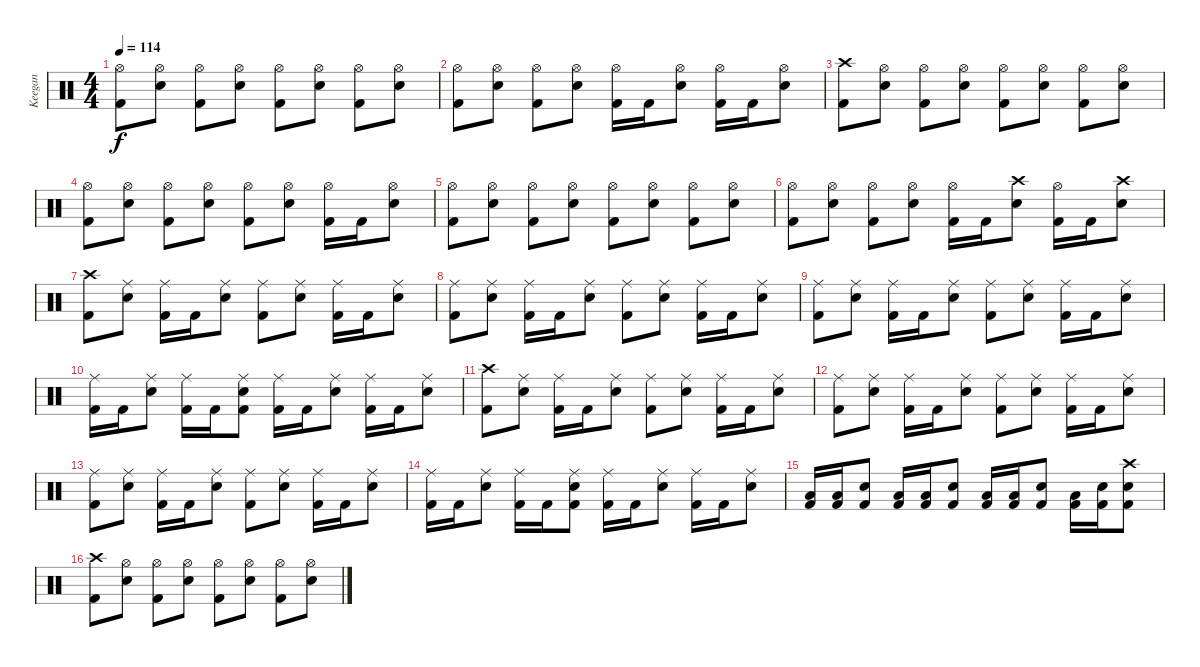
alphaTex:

\track ("Keegan" "Keegan") {instrument percussion}
\staff {score}
\articulation defaults
\ts (4 4)
\tempo 114
\clef neutral
\ks c
("Hi-Hat (open)" "Kick (hit) 2").8{dy f} ("Hi-Hat (open)" "Electric Snare (hit)").8 ("Hi-Hat (open)" "Kick (hit) 2").8 ("Hi-Hat (open)" "Electric Snare (hit)").8 ("Hi-Hat (open)" "Kick (hit) 2").8 ("Hi-Hat (open)" "Electric Snare (hit)").8 ("Hi-Hat (open)" "Kick (hit) 2").8 ("Hi-Hat (open)" "Electric Snare (hit)").8 |
("Hi-Hat (open)" "Kick (hit) 2").8 ("Hi-Hat (open)" "Electric Snare (hit)").8 ("Hi-Hat (open)" "Kick (hit) 2").8 ("Hi-Hat (open)" "Electric Snare (hit)").8 ("Hi-Hat (open)" "Kick (hit) 2").16 "Kick (hit) 2".16 ("Hi-Hat (open)" "Electric Snare (hit)").8 ("Hi-Hat (open)" "Kick (hit) 2").16 "Kick (hit) 2".16 ("Hi-Hat (open)" "Electric Snare (hit)").8 |
("Crash high (hit)" "Kick (hit) 2").8 ("Hi-Hat (open)" "Electric Snare (hit)").8 ("Hi-Hat (open)" "Kick (hit) 2").8 ("Hi-Hat (open)" "Electric Snare (hit)").8 ("Hi-Hat (open)" "Kick (hit) 2").8 ("Hi-Hat (open)" "Electric Snare (hit)").8 ("Hi-Hat (open)" "Kick (hit) 2").8 ("Hi-Hat (open)" "Electric Snare (hit)").8 |
("Hi-Hat (open)" "Kick (hit) 2").8 ("Hi-Hat (open)" "Electric Snare (hit)").8 ("Hi-Hat (open)" "Kick (hit) 2").8 ("Hi-Hat (open)" "Electric Snare (hit)").8 ("Hi-Hat (open)" "Kick (hit) 2").8 ("Hi-Hat (open)" "Electric Snare (hit)").8 ("Hi-Hat (open)" "Kick (hit) 2").16 "Kick (hit) 2".16 ("Hi-Hat (open)" "Electric Snare (hit)").8 |
("Hi-Hat (open)" "Kick (hit) 2").8 ("Hi-Hat (open)" "Electric Snare (hit)").8 ("Hi-Hat (open)" "Kick (hit) 2").8 ("Hi-Hat (open)" "Electric Snare (hit)").8 ("Hi-Hat (open)" "Kick (hit) 2").8 ("Hi-Hat (open)" "Electric Snare (hit)").8 ("Hi-Hat (open)" "Kick (hit) 2").8 ("Hi-Hat (open)" "Electric Snare (hit)").8 |
("Hi-Hat (open)" "Kick (hit) 2").8 ("Hi-Hat (open)" "Electric Snare (hit)").8 ("Hi-Hat (open)" "Kick (hit) 2").8 ("Hi-Hat (open)" "Electric Snare (hit)").8 ("Hi-Hat (open)" "Kick (hit) 2").16 "Kick (hit) 2".16 ("Crash high (hit)" "Electric Snare (hit)").8 ("Hi-Hat (open)" "Kick (hit) 2").16 "Kick (hit) 2".16 ("Crash high (hit)" "Electric Snare (hit)").8 |
("Crash high (hit)" "Kick (hit) 2").8 ("Ride (middle)" "Electric Snare (hit)").8 ("Ride (middle)" "Kick (hit) 2").16 "Kick (hit) 2".16 ("Ride (middle)" "Electric Snare (hit)").8 ("Ride (middle)" "Kick (hit) 2").8 ("Ride (middle)" "Electric Snare (hit)").8 ("Ride (middle)" "Kick (hit) 2").16 "Kick (hit) 2".16 ("Ride (middle)" "Electric Snare (hit)").8 |
("Ride (middle)" "Kick (hit) 2").8 ("Ride (middle)" "Electric Snare (hit)").8 ("Ride (middle)" "Kick (hit) 2").16 "Kick (hit) 2".16 ("Ride (middle)" "Electric Snare (hit)").8 ("Ride (middle)" "Kick (hit) 2").8 ("Ride (middle)" "Electric Snare (hit)").8 ("Ride (middle)" "Kick (hit) 2").16 "Kick (hit) 2".16 ("Ride (middle)" "Electric Snare (hit)").8 |
("Ride (middle)" "Kick (hit) 2").8 ("Ride (middle)" "Electric Snare (hit)").8 ("Ride (middle)" "Kick (hit) 2").16 "Kick (hit) 2".16 ("Ride (middle)" "Electric Snare (hit)").8 ("Ride (middle)" "Kick (hit) 2").8 ("Ride (middle)" "Electric Snare (hit)").8 ("Ride (middle)" "Kick (hit) 2").16 "Kick (hit) 2".16 ("Ride (middle)" "Electric Snare (hit)").8 |
("Ride (middle)" "Kick (hit) 2").16 "Kick (hit) 2".16 ("Ride (middle)" "Electric Snare (hit)").8 ("Ride (middle)" "Kick (hit) 2").16 "Kick (hit) 2".16 ("Ride (middle)" "Electric Snare (hit)" "Kick (hit) 2").8 ("Ride (middle)" "Kick (hit) 2").16 "Kick (hit) 2".16 ("Ride (middle)" "Electric Snare (hit)").8 ("Ride (middle)" "Kick (hit) 2").16 "Kick (hit) 2".16 ("Ride (middle)" "Electric Snare (hit)").8 |
("Crash high (hit)" "Kick (hit) 2").8 ("Ride (middle)" "Electric Snare (hit)").8 ("Ride (middle)" "Kick (hit) 2").16 "Kick (hit) 2".16 ("Ride (middle)" "Electric Snare (hit)").8 ("Ride (middle)" "Kick (hit) 2").8 ("Ride (middle)" "Electric Snare (hit)").8 ("Ride (middle)" "Kick (hit) 2").16 "Kick (hit) 2".16 ("Ride (middle)" "Electric Snare (hit)").8 |
("Ride (middle)" "Kick (hit) 2").8 ("Ride (middle)" "Electric Snare (hit)").8 ("Ride (middle)" "Kick (hit) 2").16 "Kick (hit) 2".16 ("Ride (middle)" "Electric Snare (hit)").8 ("Ride (middle)" "Kick (hit) 2").8 ("Ride (middle)" "Electric Snare (hit)").8 ("Ride (middle)" "Kick (hit) 2").16 "Kick (hit) 2".16 ("Ride (middle)" "Electric Snare (hit)").8 |
("Ride (middle)" "Kick (hit) 2").8 ("Ride (middle)" "Electric Snare (hit)").8 ("Ride (middle)" "Kick (hit) 2").16 "Kick (hit) 2".16 ("Ride (middle)" "Electric Snare (hit)").8 ("Ride (middle)" "Kick (hit) 2").8 ("Ride (middle)" "Electric Snare (hit)").8 ("Ride (middle)" "Kick (hit) 2").16 "Kick (hit) 2".16 ("Ride (middle)" "Electric Snare (hit)").8 |
("Ride (middle)" "Kick (hit) 2").16 "Kick (hit) 2".16 ("Ride (middle)" "Electric Snare (hit)").8 ("Ride (middle)" "Kick (hit) 2").16 "Kick (hit) 2".16 ("Ride (middle)" "Electric Snare (hit)" "Kick (hit) 2").8 ("Ride (middle)" "Kick (hit) 2").16 "Kick (hit) 2".16 ("Ride (middle)" "Electric Snare (hit)").8 ("Ride (middle)" "Kick (hit) 2").16 "Kick (hit) 2".16 ("Ride (middle)" "Electric Snare (hit)").8 |
("Low Tom (hit)" "Kick (hit) 2").16 ("Low Tom (hit)" "Kick (hit) 2").16 ("Electric Snare (hit)" "Kick (hit) 2").8 ("Low Tom (hit)" "Kick (hit) 2").16 ("Low Tom (hit)" "Kick (hit) 2").16 ("Electric Snare (hit)" "Kick (hit) 2").8 ("Low Tom (hit)" "Kick (hit) 2").16 ("Low Tom (hit)" "Kick (hit) 2").16 ("Electric Snare (hit)" "Kick (hit) 2").8 ("Low Tom (hit)" "Kick (hit) 2").16 ("Electric Snare (hit)" "Kick (hit) 2").16 ("Crash high (hit)" "Electric Snare (hit)" "Kick (hit) 2").8 |
("Crash high (hit)" "Kick (hit) 2").8 ("Hi-Hat (open)" "Electric Snare (hit)").8 ("Hi-Hat (open)" "Kick (hit) 2").8 ("Hi-Hat (open)" "Electric Snare (hit)").8 ("Hi-Hat (open)" "Kick (hit) 2").8 ("Hi-Hat (open)" "Electric Snare (hit)").8 ("Hi-Hat (open)" "Kick (hit) 2").8 ("Hi-Hat (open)" "Electric Snare (hit)").8
